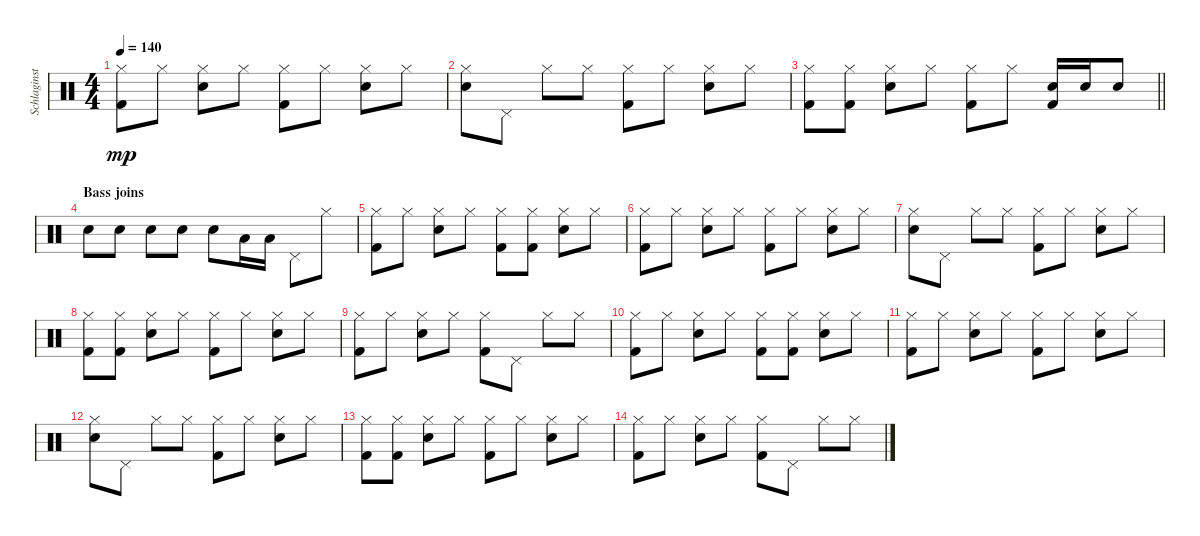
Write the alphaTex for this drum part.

\track ("Schlaginstrumente - Auswahl" "Schlaginst") {instrument percussion}
\staff {score}
\articulation defaults
\ts (4 4)
\tempo 140
\clef neutral
\ks c
("Hi-Hat (closed)" "Kick (hit) 2").8{dy mp} "Hi-Hat (closed)".8 ("Hi-Hat (closed)" "Snare (hit) 2").8 "Hi-Hat (closed)".8 ("Hi-Hat (closed)" "Kick (hit) 2").8 "Hi-Hat (closed)".8 ("Hi-Hat (closed)" "Snare (hit) 2").8 "Hi-Hat (closed)".8 |
("Hi-Hat (closed)" "Snare (hit) 2").8 "Pedal Hi-Hat (hit)".8 "Hi-Hat (closed)".8 "Hi-Hat (closed)".8 ("Hi-Hat (closed)" "Kick (hit) 2").8 "Hi-Hat (closed)".8 ("Hi-Hat (closed)" "Snare (hit) 2").8 "Hi-Hat (closed)".8 |
\barLineRight lightlight
("Hi-Hat (closed)" "Kick (hit) 2").8 ("Hi-Hat (closed)" "Kick (hit) 2").8 ("Hi-Hat (closed)" "Snare (hit) 2").8 "Hi-Hat (closed)".8 ("Hi-Hat (closed)" "Kick (hit) 2").8 "Hi-Hat (closed)".8 ("Snare (hit) 2" "Kick (hit) 2").16 "Snare (hit) 2".16 "Snare (hit) 2".8 |
\section ("" "Bass joins")
"Snare (hit) 2".8 "Snare (hit) 2".8 "Snare (hit) 2".8 "Snare (hit) 2".8 "Snare (hit) 2".8 "Low Tom (hit)".16 "Low Tom (hit)".16 "Pedal Hi-Hat (hit)".8 "Hi-Hat (closed)".8 |
("Hi-Hat (closed)" "Kick (hit) 2").8 "Hi-Hat (closed)".8 ("Hi-Hat (closed)" "Snare (hit) 2").8 "Hi-Hat (closed)".8 ("Hi-Hat (closed)" "Kick (hit) 2").8 ("Hi-Hat (closed)" "Kick (hit) 2").8 ("Hi-Hat (closed)" "Snare (hit) 2").8 "Hi-Hat (closed)".8 |
("Hi-Hat (closed)" "Kick (hit) 2").8 "Hi-Hat (closed)".8 ("Hi-Hat (closed)" "Snare (hit) 2").8 "Hi-Hat (closed)".8 ("Hi-Hat (closed)" "Kick (hit) 2").8 "Hi-Hat (closed)".8 ("Hi-Hat (closed)" "Snare (hit) 2").8 "Hi-Hat (closed)".8 |
("Hi-Hat (closed)" "Snare (hit) 2").8 "Pedal Hi-Hat (hit)".8 "Hi-Hat (closed)".8 "Hi-Hat (closed)".8 ("Hi-Hat (closed)" "Kick (hit) 2").8 "Hi-Hat (closed)".8 ("Hi-Hat (closed)" "Snare (hit) 2").8 "Hi-Hat (closed)".8 |
("Hi-Hat (closed)" "Kick (hit) 2").8 ("Hi-Hat (closed)" "Kick (hit) 2").8 ("Hi-Hat (closed)" "Snare (hit) 2").8 "Hi-Hat (closed)".8 ("Hi-Hat (closed)" "Kick (hit) 2").8 "Hi-Hat (closed)".8 ("Hi-Hat (closed)" "Snare (hit) 2").8 "Hi-Hat (closed)".8 |
("Hi-Hat (closed)" "Kick (hit) 2").8 "Hi-Hat (closed)".8 ("Hi-Hat (closed)" "Snare (hit) 2").8 "Hi-Hat (closed)".8 ("Hi-Hat (closed)" "Kick (hit) 2").8 "Pedal Hi-Hat (hit)".8 "Hi-Hat (closed)".8 "Hi-Hat (closed)".8 |
("Hi-Hat (closed)" "Kick (hit) 2").8 "Hi-Hat (closed)".8 ("Hi-Hat (closed)" "Snare (hit) 2").8 "Hi-Hat (closed)".8 ("Hi-Hat (closed)" "Kick (hit) 2").8 ("Hi-Hat (closed)" "Kick (hit) 2").8 ("Hi-Hat (closed)" "Snare (hit) 2").8 "Hi-Hat (closed)".8 |
("Hi-Hat (closed)" "Kick (hit) 2").8 "Hi-Hat (closed)".8 ("Hi-Hat (closed)" "Snare (hit) 2").8 "Hi-Hat (closed)".8 ("Hi-Hat (closed)" "Kick (hit) 2").8 "Hi-Hat (closed)".8 ("Hi-Hat (closed)" "Snare (hit) 2").8 "Hi-Hat (closed)".8 |
("Hi-Hat (closed)" "Snare (hit) 2").8 "Pedal Hi-Hat (hit)".8 "Hi-Hat (closed)".8 "Hi-Hat (closed)".8 ("Hi-Hat (closed)" "Kick (hit) 2").8 "Hi-Hat (closed)".8 ("Hi-Hat (closed)" "Snare (hit) 2").8 "Hi-Hat (closed)".8 |
("Hi-Hat (closed)" "Kick (hit) 2").8 ("Hi-Hat (closed)" "Kick (hit) 2").8 ("Hi-Hat (closed)" "Snare (hit) 2").8 "Hi-Hat (closed)".8 ("Hi-Hat (closed)" "Kick (hit) 2").8 "Hi-Hat (closed)".8 ("Hi-Hat (closed)" "Snare (hit) 2").8 "Hi-Hat (closed)".8 |
("Hi-Hat (closed)" "Kick (hit) 2").8 "Hi-Hat (closed)".8 ("Hi-Hat (closed)" "Snare (hit) 2").8 "Hi-Hat (closed)".8 ("Hi-Hat (closed)" "Kick (hit) 2").8 "Pedal Hi-Hat (hit)".8 "Hi-Hat (closed)".8 "Hi-Hat (closed)".8
